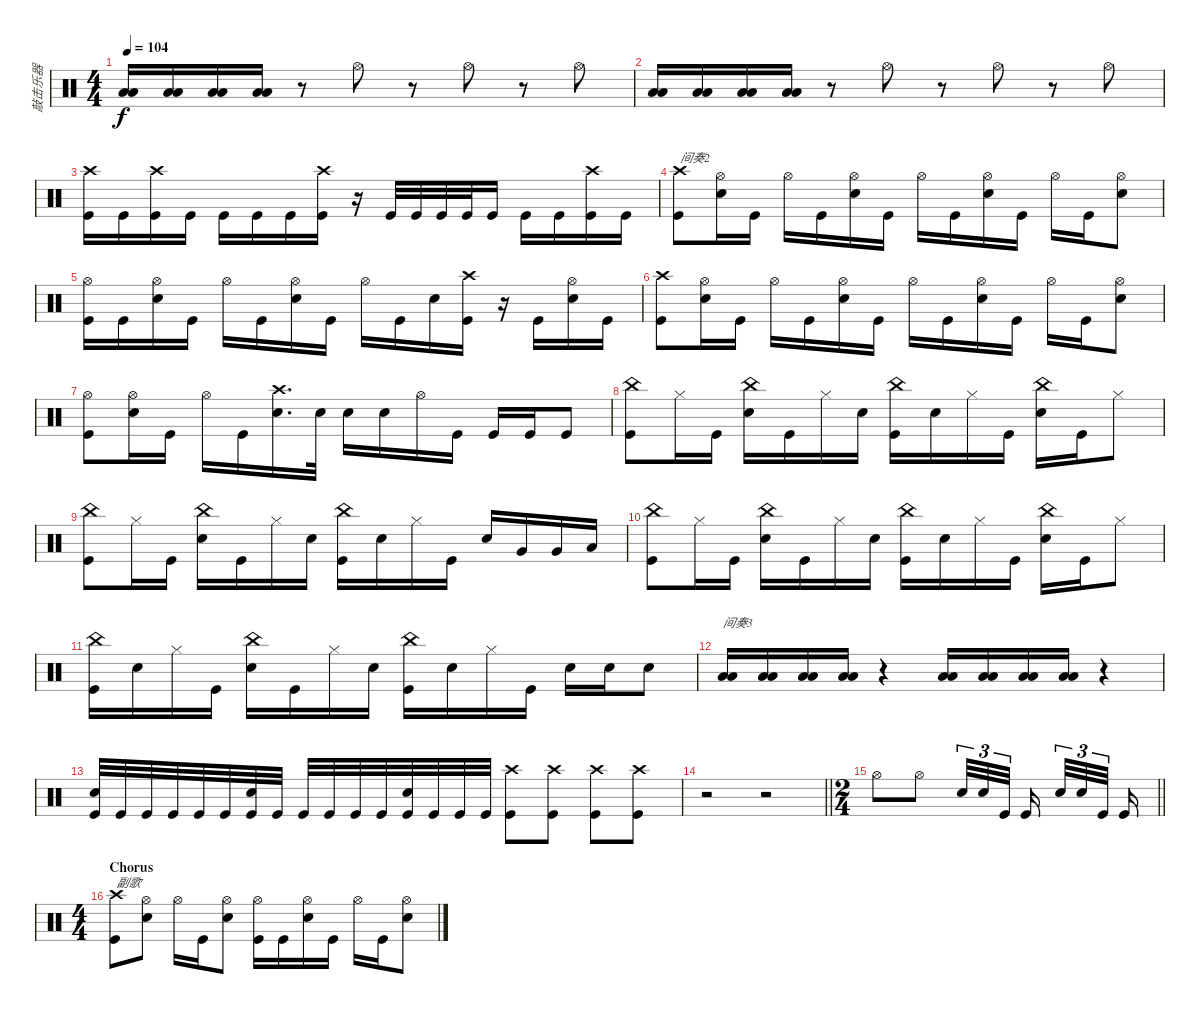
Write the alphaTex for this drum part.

\track ("敲击乐器" "敲击乐器") {instrument percussion}
\staff {score}
\articulation defaults
\ts (4 4)
\tempo 104
\clef neutral
\ks c
("Low Tom (hit)" "Low Floor Tom (hit)").16{dy f} ("Low Tom (hit)" "Low Floor Tom (hit)").16 ("Low Tom (hit)" "Low Floor Tom (hit)").16 ("Low Tom (hit)" "Low Floor Tom (hit)").16 r.8 "Hi-Hat (open)".8 r.8 "Hi-Hat (open)".8 r.8 "Hi-Hat (open)".8 |
("Low Tom (hit)" "Low Floor Tom (hit)").16 ("Low Tom (hit)" "Low Floor Tom (hit)").16 ("Low Tom (hit)" "Low Floor Tom (hit)").16 ("Low Tom (hit)" "Low Floor Tom (hit)").16 r.8 "Hi-Hat (open)".8 r.8 "Hi-Hat (open)".8 r.8 "Hi-Hat (open)".8 |
("Crash high (hit)" "Kick (hit)").16 "Kick (hit)".16 ("Kick (hit)" "Crash high (hit)").16 "Kick (hit)".16 "Kick (hit)".16 "Kick (hit)".16 "Kick (hit)".16 ("Kick (hit)" "Crash high (hit)").16 r.16 "Kick (hit)".32 "Kick (hit)".32 "Kick (hit)".32 "Kick (hit)".32 "Kick (hit)".16 "Kick (hit)".16 "Kick (hit)".16 ("Kick (hit)" "Crash high (hit)").16 "Kick (hit)".16 |
("Crash high (hit)" "Kick (hit)").8{txt "间奏2"} ("Snare (hit) 2" "Hi-Hat (open)").16 "Kick (hit)".16 "Hi-Hat (open)".16 "Kick (hit)".16 ("Snare (hit) 2" "Hi-Hat (open)").16 "Kick (hit)".16 "Hi-Hat (open)".16 "Kick (hit)".16 ("Snare (hit) 2" "Hi-Hat (open)").16 "Kick (hit)".16 "Hi-Hat (open)".16 "Kick (hit)".16 ("Snare (hit) 2" "Hi-Hat (open)").8 |
("Hi-Hat (open)" "Kick (hit)").16 "Kick (hit)".16 ("Snare (hit) 2" "Hi-Hat (open)").16 "Kick (hit)".16 "Hi-Hat (open)".16 "Kick (hit)".16 ("Snare (hit) 2" "Hi-Hat (open)").16 "Kick (hit)".16 "Hi-Hat (open)".16 "Kick (hit)".16 "Snare (hit) 2".16 ("Kick (hit)" "Crash high (hit)").16 r.16 "Kick (hit)".16 ("Snare (hit) 2" "Hi-Hat (open)").16 "Kick (hit)".16 |
("Crash high (hit)" "Kick (hit)").8 ("Snare (hit) 2" "Hi-Hat (open)").16 "Kick (hit)".16 "Hi-Hat (open)".16 "Kick (hit)".16 ("Snare (hit) 2" "Hi-Hat (open)").16 "Kick (hit)".16 "Hi-Hat (open)".16 "Kick (hit)".16 ("Snare (hit) 2" "Hi-Hat (open)").16 "Kick (hit)".16 "Hi-Hat (open)".16 "Kick (hit)".16 ("Snare (hit) 2" "Hi-Hat (open)").8 |
("Hi-Hat (open)" "Kick (hit)").8 ("Snare (hit) 2" "Hi-Hat (open)").16 "Kick (hit)".16 "Hi-Hat (open)".16 "Kick (hit)".16 ("Crash high (hit)" "Snare (hit) 2").16{d} "Snare (hit) 2".32 "Snare (hit) 2".16 "Snare (hit) 2".16 "Hi-Hat (open)".16 "Kick (hit)".16 "Kick (hit)".16 "Kick (hit)".16 "Kick (hit)".8 |
("China (hit)" "Kick (hit)").8 "Hi-Hat (closed)".16 "Kick (hit)".16 ("Snare (hit) 2" "China (hit)").16 "Kick (hit)".16 "Hi-Hat (closed)".16 "Snare (hit) 2".16 ("Kick (hit)" "China (hit)").16 "Snare (hit) 2".16 "Hi-Hat (closed)".16 "Kick (hit)".16 ("Snare (hit) 2" "China (hit)").16 "Kick (hit)".16 "Hi-Hat (closed)".8 |
("China (hit)" "Kick (hit)").8 "Hi-Hat (closed)".16 "Kick (hit)".16 ("Snare (hit) 2" "China (hit)").16 "Kick (hit)".16 "Hi-Hat (closed)".16 "Snare (hit) 2".16 ("Kick (hit)" "China (hit)").16 "Snare (hit) 2".16 "Hi-Hat (closed)".16 "Kick (hit)".16 "Snare (hit) 2".16 "Very Low Tom (hit)".16 "Very Low Tom (hit)".16 "Low Floor Tom (hit)".16 |
("China (hit)" "Kick (hit)").8 "Hi-Hat (closed)".16 "Kick (hit)".16 ("Snare (hit) 2" "China (hit)").16 "Kick (hit)".16 "Hi-Hat (closed)".16 "Snare (hit) 2".16 ("Kick (hit)" "China (hit)").16 "Snare (hit) 2".16 "Hi-Hat (closed)".16 "Kick (hit)".16 ("Snare (hit) 2" "China (hit)").16 "Kick (hit)".16 "Hi-Hat (closed)".8 |
("Kick (hit)" "China (hit)").16 "Snare (hit) 2".16 "Hi-Hat (closed)".16 "Kick (hit)".16 ("Snare (hit) 2" "China (hit)").16 "Kick (hit)".16 "Hi-Hat (closed)".16 "Snare (hit) 2".16 ("Kick (hit)" "China (hit)").16 "Snare (hit) 2".16 "Hi-Hat (closed)".16 "Kick (hit)".16 "Snare (hit) 2".16 "Snare (hit) 2".16 "Snare (hit) 2".8 |
("Low Tom (hit)" "Low Floor Tom (hit)").16{txt "间奏3"} ("Low Tom (hit)" "Low Floor Tom (hit)").16 ("Low Tom (hit)" "Low Floor Tom (hit)").16 ("Low Tom (hit)" "Low Floor Tom (hit)").16 r.4 ("Low Tom (hit)" "Low Floor Tom (hit)").16 ("Low Tom (hit)" "Low Floor Tom (hit)").16 ("Low Tom (hit)" "Low Floor Tom (hit)").16 ("Low Tom (hit)" "Low Floor Tom (hit)").16 r.4 |
("Snare (hit) 2" "Kick (hit)").32 "Kick (hit)".32 "Kick (hit)".32 "Kick (hit)".32 "Kick (hit)".32 "Kick (hit)".32 ("Kick (hit)" "Snare (hit) 2").32 "Kick (hit)".32 "Kick (hit)".32 "Kick (hit)".32 "Kick (hit)".32 "Kick (hit)".32 ("Snare (hit) 2" "Kick (hit)").32 "Kick (hit)".32 "Kick (hit)".32 "Kick (hit)".32 ("Crash high (hit)" "Kick (hit)").8 ("Crash high (hit)" "Kick (hit)").8 ("Crash high (hit)" "Kick (hit)").8 ("Crash high (hit)" "Kick (hit)").8 |
\barLineRight lightlight
r.2 r.2 |
\ts (2 4)
\barLineRight lightlight "Hi-Hat (open)".8 "Hi-Hat (open)".8 "Snare (hit) 2".32{tu (3 2)} "Snare (hit) 2".32{tu (3 2)} "Kick (hit)".32{tu (3 2) beam splitsecondary} "Kick (hit)".16{beam splitsecondary} "Snare (hit) 2".32{tu (3 2)} "Snare (hit) 2".32{tu (3 2)} "Kick (hit)".32{tu (3 2) beam splitsecondary} "Kick (hit)".16
|
\ts (4 4)
\section ("" "Chorus")
("Crash high (hit)" "Kick (hit)").8{txt "副歌"} ("Snare (hit) 2" "Hi-Hat (open)").8 "Hi-Hat (open)".16 "Kick (hit)".16 ("Snare (hit) 2" "Hi-Hat (open)").8 ("Kick (hit)" "Hi-Hat (open)").16 "Kick (hit)".16 ("Snare (hit) 2" "Hi-Hat (open)").16 "Kick (hit)".16 "Hi-Hat (open)".16 "Kick (hit)".16 ("Snare (hit) 2" "Hi-Hat (open)").8
